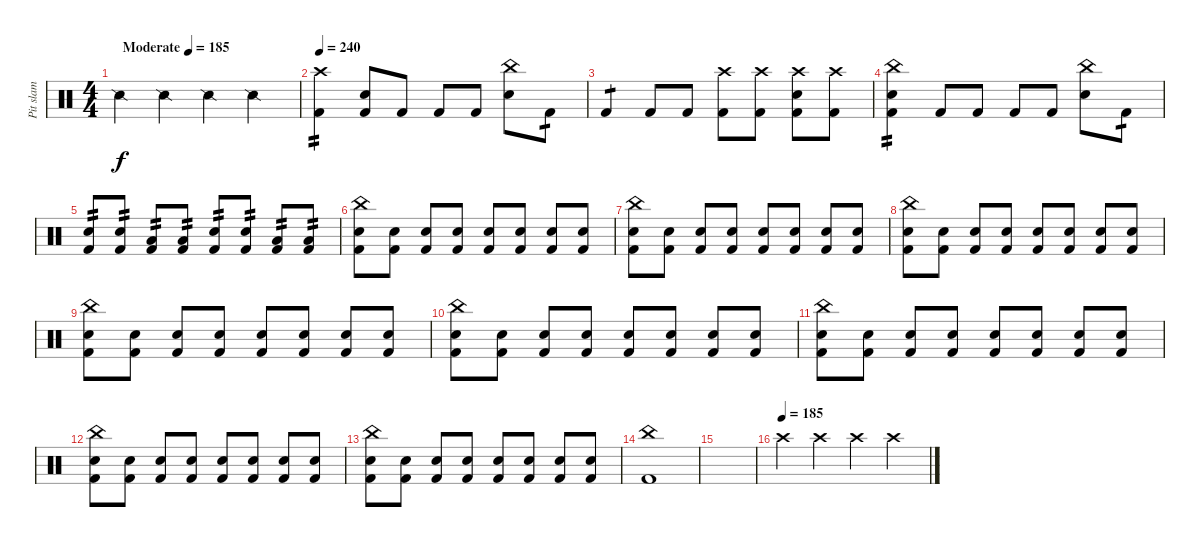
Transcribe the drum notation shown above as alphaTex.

\track ("Pit slam" "Pit slam") {instrument percussion}
\staff {score}
\articulation defaults
\ts (4 4)
\tempo (185 "Moderate")
\tempo 240
\tempo (185 "Moderate")
\clef neutral
\ks c "Snare (side stick) 2".4{dy f} "Snare (side stick) 2".4 "Snare (side stick) 2".4 "Snare (side stick) 2".4
|
\tempo 240
("Crash high (hit)" "Kick (hit) 2").4{tp 2} ("Electric Snare (hit)" "Kick (hit) 2").8 "Kick (hit) 2".8 "Kick (hit) 2".8 "Kick (hit) 2".8 ("China (hit)" "Electric Snare (hit)").8 "Kick (hit) 2".8{tp 1} |
"Kick (hit) 2".4{tp 1} "Kick (hit) 2".8 "Kick (hit) 2".8 ("Crash high (hit)" "Kick (hit) 2").8 ("Crash high (hit)" "Kick (hit) 2").8 ("Crash high (hit)" "Electric Snare (hit)" "Kick (hit) 2").8 ("Crash high (hit)" "Kick (hit) 2").8 |
("China (hit)" "Electric Snare (hit)" "Kick (hit) 2").4{tp 2} "Kick (hit) 2".8 "Kick (hit) 2".8 "Kick (hit) 2".8 "Kick (hit) 2".8 ("China (hit)" "Electric Snare (hit)").8 "Kick (hit) 2".8{tp 1} |
("Electric Snare (hit)" "Kick (hit) 2").8{tp 2} ("Electric Snare (hit)" "Kick (hit) 2").8{tp 2} ("Low Floor Tom (hit)" "Kick (hit) 2").8{tp 2} ("Low Floor Tom (hit)" "Kick (hit) 2").8{tp 2} ("Electric Snare (hit)" "Kick (hit) 2").8{tp 2} ("Electric Snare (hit)" "Kick (hit) 2").8{tp 2} ("Low Floor Tom (hit)" "Kick (hit) 2").8{tp 2} ("Low Floor Tom (hit)" "Kick (hit) 2").8{tp 2} |
("China (hit)" "Electric Snare (hit)" "Kick (hit) 2").8 ("Electric Snare (hit)" "Kick (hit) 2").8 ("Electric Snare (hit)" "Kick (hit) 2").8 ("Electric Snare (hit)" "Kick (hit) 2").8 ("Electric Snare (hit)" "Kick (hit) 2").8 ("Electric Snare (hit)" "Kick (hit) 2").8 ("Electric Snare (hit)" "Kick (hit) 2").8 ("Electric Snare (hit)" "Kick (hit) 2").8 |
("China (hit)" "Electric Snare (hit)" "Kick (hit) 2").8 ("Electric Snare (hit)" "Kick (hit) 2").8 ("Electric Snare (hit)" "Kick (hit) 2").8 ("Electric Snare (hit)" "Kick (hit) 2").8 ("Electric Snare (hit)" "Kick (hit) 2").8 ("Electric Snare (hit)" "Kick (hit) 2").8 ("Electric Snare (hit)" "Kick (hit) 2").8 ("Electric Snare (hit)" "Kick (hit) 2").8 |
("China (hit)" "Electric Snare (hit)" "Kick (hit) 2").8 ("Electric Snare (hit)" "Kick (hit) 2").8 ("Electric Snare (hit)" "Kick (hit) 2").8 ("Electric Snare (hit)" "Kick (hit) 2").8 ("Electric Snare (hit)" "Kick (hit) 2").8 ("Electric Snare (hit)" "Kick (hit) 2").8 ("Electric Snare (hit)" "Kick (hit) 2").8 ("Electric Snare (hit)" "Kick (hit) 2").8 |
("China (hit)" "Electric Snare (hit)" "Kick (hit) 2").8 ("Electric Snare (hit)" "Kick (hit) 2").8 ("Electric Snare (hit)" "Kick (hit) 2").8 ("Electric Snare (hit)" "Kick (hit) 2").8 ("Electric Snare (hit)" "Kick (hit) 2").8 ("Electric Snare (hit)" "Kick (hit) 2").8 ("Electric Snare (hit)" "Kick (hit) 2").8 ("Electric Snare (hit)" "Kick (hit) 2").8 |
("China (hit)" "Electric Snare (hit)" "Kick (hit) 2").8 ("Electric Snare (hit)" "Kick (hit) 2").8 ("Electric Snare (hit)" "Kick (hit) 2").8 ("Electric Snare (hit)" "Kick (hit) 2").8 ("Electric Snare (hit)" "Kick (hit) 2").8 ("Electric Snare (hit)" "Kick (hit) 2").8 ("Electric Snare (hit)" "Kick (hit) 2").8 ("Electric Snare (hit)" "Kick (hit) 2").8 |
("China (hit)" "Electric Snare (hit)" "Kick (hit) 2").8 ("Electric Snare (hit)" "Kick (hit) 2").8 ("Electric Snare (hit)" "Kick (hit) 2").8 ("Electric Snare (hit)" "Kick (hit) 2").8 ("Electric Snare (hit)" "Kick (hit) 2").8 ("Electric Snare (hit)" "Kick (hit) 2").8 ("Electric Snare (hit)" "Kick (hit) 2").8 ("Electric Snare (hit)" "Kick (hit) 2").8 |
("China (hit)" "Electric Snare (hit)" "Kick (hit) 2").8 ("Electric Snare (hit)" "Kick (hit) 2").8 ("Electric Snare (hit)" "Kick (hit) 2").8 ("Electric Snare (hit)" "Kick (hit) 2").8 ("Electric Snare (hit)" "Kick (hit) 2").8 ("Electric Snare (hit)" "Kick (hit) 2").8 ("Electric Snare (hit)" "Kick (hit) 2").8 ("Electric Snare (hit)" "Kick (hit) 2").8 |
("China (hit)" "Electric Snare (hit)" "Kick (hit) 2").8 ("Electric Snare (hit)" "Kick (hit) 2").8 ("Electric Snare (hit)" "Kick (hit) 2").8 ("Electric Snare (hit)" "Kick (hit) 2").8 ("Electric Snare (hit)" "Kick (hit) 2").8 ("Electric Snare (hit)" "Kick (hit) 2").8 ("Electric Snare (hit)" "Kick (hit) 2").8 ("Electric Snare (hit)" "Kick (hit) 2").8 |
("China (hit)" "Kick (hit) 2").1 |
|
\tempo (185)
"Crash high (hit)".4 "Crash high (hit)".4 "Crash high (hit)".4 "Crash high (hit)".4
